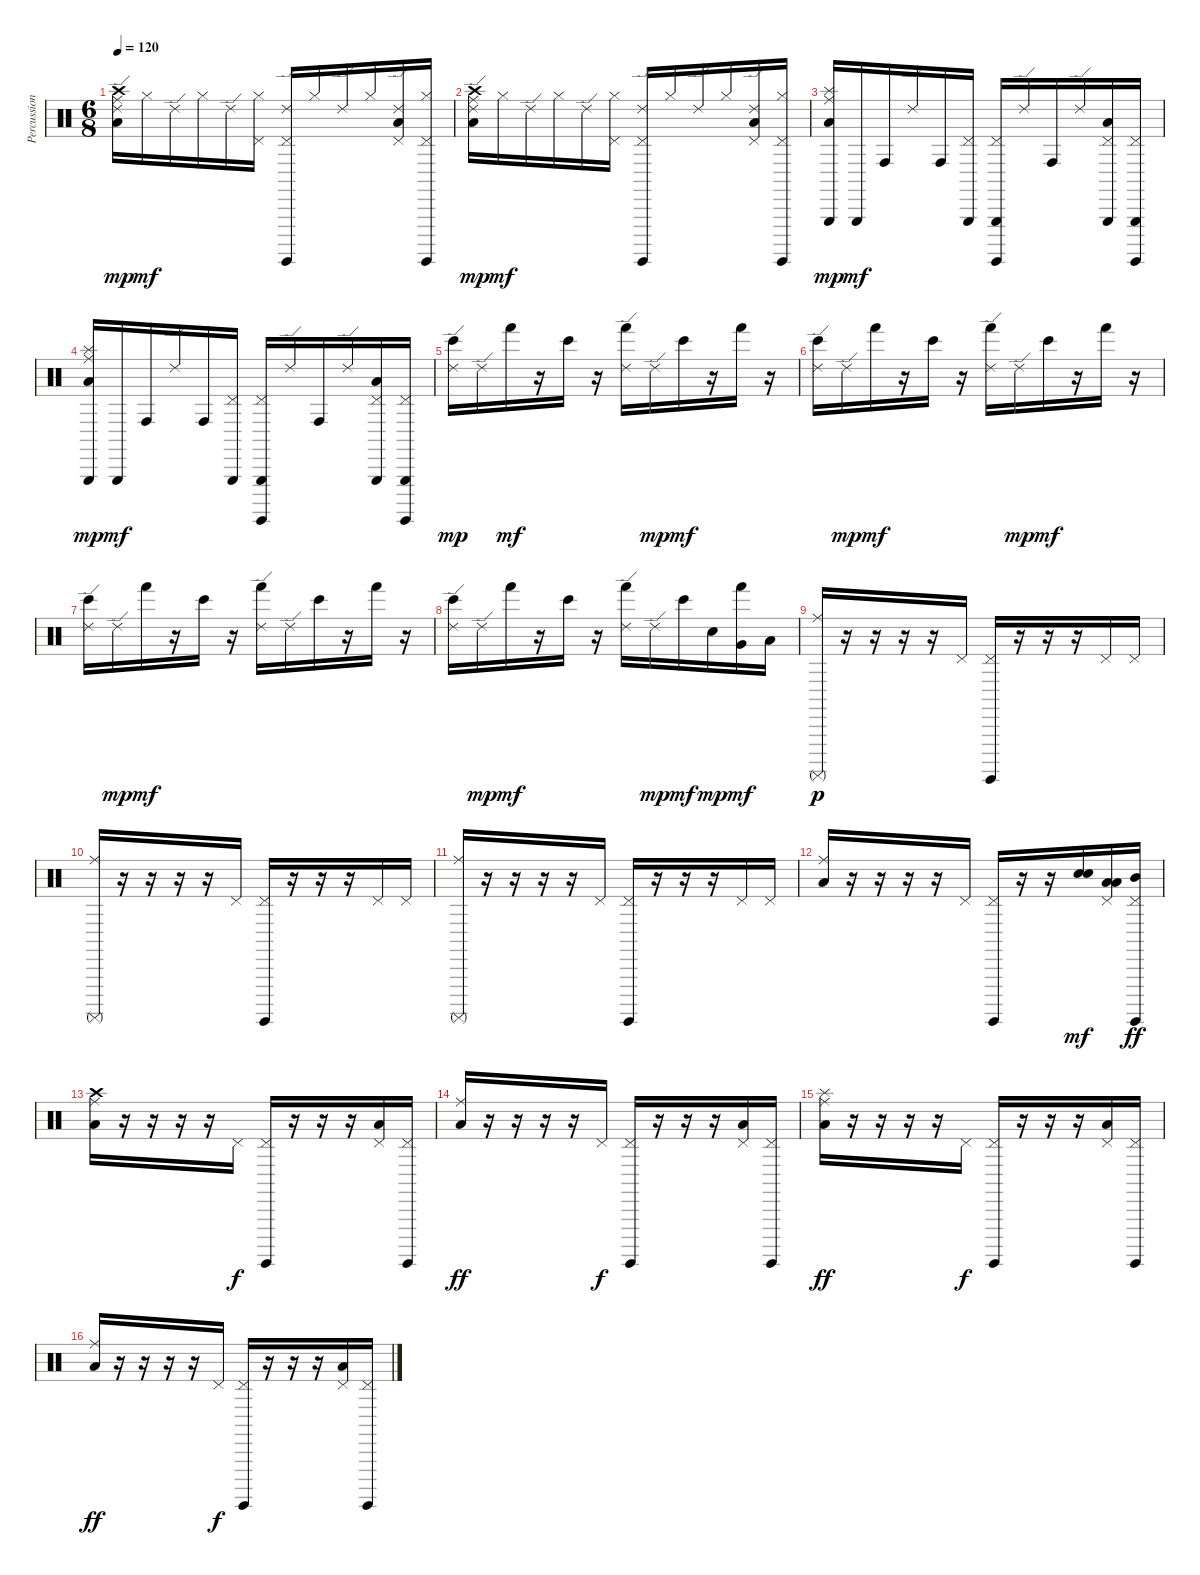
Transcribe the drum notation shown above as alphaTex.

\track ("Percussions" "Percussion") {instrument percussion}
\staff {score}
\articulation defaults
\ts (6 8)
\tempo 120
\clef neutral
\ks c
("Low Tom (hit)" "Ride (middle)" "Ride (edge) 2" "Crash high (hit)").16{dy mp} "Hi-Hat (closed)".16{dy mf} "Ride (edge) 2".16 "Hi-Hat (closed)".16 "Ride (edge) 2".16 ("Pedal Hi-Hat (hit)" "Hi-Hat (closed)").16 ("Surdo (hit)" "Pedal Hi-Hat (hit)" "Ride (edge) 2").16 "Hi-Hat (closed)".16 "Ride (edge) 2".16 "Hi-Hat (closed)".16 ("Low Tom (hit)" "Pedal Hi-Hat (hit)" "Ride (edge) 2").16 ("Surdo (hit)" "Pedal Hi-Hat (hit)" "Hi-Hat (closed)").16 |
("Low Tom (hit)" "Ride (middle)" "Ride (edge) 2" "Crash high (hit)").16{dy mp} "Hi-Hat (closed)".16{dy mf} "Ride (edge) 2".16 "Hi-Hat (closed)".16 "Ride (edge) 2".16 ("Pedal Hi-Hat (hit)" "Hi-Hat (closed)").16 ("Surdo (hit)" "Pedal Hi-Hat (hit)" "Ride (edge) 2").16 "Hi-Hat (closed)".16 "Ride (edge) 2".16 "Hi-Hat (closed)".16 ("Low Tom (hit)" "Pedal Hi-Hat (hit)" "Ride (edge) 2").16 ("Surdo (hit)" "Pedal Hi-Hat (hit)" "Hi-Hat (closed)").16 |
("Low Tom (hit)" "Ride (middle)" "Triangle (hit)" "Splash (hit)").16{dy mp} "Triangle (hit)".16{dy mf} "Conga high (hit)".16 "Ride (edge) 2".16 "Conga high (hit)".16 ("Pedal Hi-Hat (hit)" "Triangle (hit)").16 ("Surdo (hit)" "Pedal Hi-Hat (hit)" "Triangle (hit)").16 "Ride (edge) 2".16 "Conga high (hit)".16 "Ride (edge) 2".16 ("Low Tom (hit)" "Pedal Hi-Hat (hit)" "Triangle (hit)").16 ("Surdo (hit)" "Pedal Hi-Hat (hit)" "Triangle (hit)").16 |
("Low Tom (hit)" "Ride (middle)" "Triangle (hit)" "Splash (hit)").16{dy mp} "Triangle (hit)".16{dy mf} "Conga high (hit)".16 "Ride (edge) 2".16 "Conga high (hit)".16 ("Pedal Hi-Hat (hit)" "Triangle (hit)").16 ("Surdo (hit)" "Pedal Hi-Hat (hit)" "Triangle (hit)").16 "Ride (edge) 2".16 "Conga high (hit)".16 "Ride (edge) 2".16 ("Low Tom (hit)" "Pedal Hi-Hat (hit)" "Triangle (hit)").16 ("Surdo (hit)" "Pedal Hi-Hat (hit)" "Triangle (hit)").16 |
("Ride (edge) 2" "Bongo High (hit)").16{dy mp} "Ride (edge) 2".16 "Hand (hit)".16{dy mf} r.16 "Bongo High (hit)".16 r.16 ("Ride (edge) 2" "Hand (hit)").16 "Ride (edge) 2".16{dy mp} "Bongo High (hit)".16{dy mf} r.16 "Hand (hit)".16 r.16 |
("Ride (edge) 2" "Bongo High (hit)").16 "Ride (edge) 2".16{dy mp} "Hand (hit)".16{dy mf} r.16 "Bongo High (hit)".16 r.16 ("Ride (edge) 2" "Hand (hit)").16 "Ride (edge) 2".16{dy mp} "Bongo High (hit)".16{dy mf} r.16 "Hand (hit)".16 r.16 |
("Ride (edge) 2" "Bongo High (hit)").16 "Ride (edge) 2".16{dy mp} "Hand (hit)".16{dy mf} r.16 "Bongo High (hit)".16 r.16 ("Ride (edge) 2" "Hand (hit)").16 "Ride (edge) 2".16 "Bongo High (hit)".16 r.16 "Hand (hit)".16 r.16 |
("Ride (edge) 2" "Bongo High (hit)").16 "Ride (edge) 2".16{dy mp} "Hand (hit)".16{dy mf} r.16 "Bongo High (hit)".16 r.16 ("Ride (edge) 2" "Hand (hit)").16 "Ride (edge) 2".16{dy mp} "Bongo High (hit)".16{dy mf} "Electric Snare (hit)".16{dy mp} ("Very Low Tom (hit)" "Hand (hit)").16{dy mf} "Low Tom (hit)".16 |
("Surdo (mute)" "Ride (middle)").16{dy p} r.16 r.16 r.16 r.16 "Pedal Hi-Hat (hit)".16 ("Surdo (hit)" "Pedal Hi-Hat (hit)").16 r.16 r.16 r.16 "Pedal Hi-Hat (hit)".16 "Pedal Hi-Hat (hit)".16 |
("Surdo (mute)" "Ride (middle)").16 r.16 r.16 r.16 r.16 "Pedal Hi-Hat (hit)".16 ("Surdo (hit)" "Pedal Hi-Hat (hit)").16 r.16 r.16 r.16 "Pedal Hi-Hat (hit)".16 "Pedal Hi-Hat (hit)".16 |
("Surdo (mute)" "Ride (middle)").16 r.16 r.16 r.16 r.16 "Pedal Hi-Hat (hit)".16 ("Surdo (hit)" "Pedal Hi-Hat (hit)").16 r.16 r.16 r.16 "Pedal Hi-Hat (hit)".16 "Pedal Hi-Hat (hit)".16 |
("Low Tom (hit)" "Ride (middle)").16 r.16 r.16 r.16 r.16 "Pedal Hi-Hat (hit)".16 ("Surdo (hit)" "Pedal Hi-Hat (hit)").16 r.16 r.16 ("Electric Snare (hit)" "Electric Snare (hit)").16{dy mf} ("Low Tom (hit)" "Pedal Hi-Hat (hit)" "Low Floor Tom (hit)").16 ("Surdo (hit)" "Pedal Hi-Hat (hit)" "Mid Tom (hit)").16{dy ff} |
("Low Tom (hit)" "Ride (middle)" "Crash high (hit)").16 r.16 r.16 r.16 r.16 "Pedal Hi-Hat (hit)".16{dy f} ("Surdo (hit)" "Pedal Hi-Hat (hit)").16 r.16 r.16 r.16 ("Low Tom (hit)" "Pedal Hi-Hat (hit)").16 ("Surdo (hit)" "Pedal Hi-Hat (hit)").16 |
("Low Tom (hit)" "Ride (middle)").16{dy ff} r.16 r.16 r.16 r.16 "Pedal Hi-Hat (hit)".16{dy f} ("Surdo (hit)" "Pedal Hi-Hat (hit)").16 r.16 r.16 r.16 ("Low Tom (hit)" "Pedal Hi-Hat (hit)").16 ("Surdo (hit)" "Pedal Hi-Hat (hit)").16 |
("Low Tom (hit)" "Ride (middle)" "Splash (hit)").16{dy ff} r.16 r.16 r.16 r.16 "Pedal Hi-Hat (hit)".16{dy f} ("Surdo (hit)" "Pedal Hi-Hat (hit)").16 r.16 r.16 r.16 ("Low Tom (hit)" "Pedal Hi-Hat (hit)").16 ("Surdo (hit)" "Pedal Hi-Hat (hit)").16 |
("Low Tom (hit)" "Ride (middle)").16{dy ff} r.16 r.16 r.16 r.16 "Pedal Hi-Hat (hit)".16{dy f} ("Surdo (hit)" "Pedal Hi-Hat (hit)").16 r.16 r.16 r.16 ("Low Tom (hit)" "Pedal Hi-Hat (hit)").16 ("Surdo (hit)" "Pedal Hi-Hat (hit)").16
